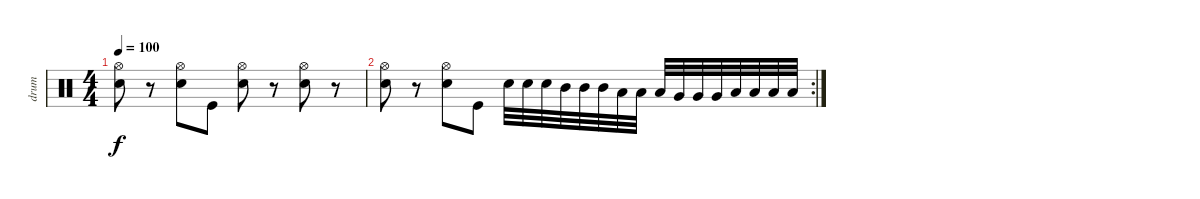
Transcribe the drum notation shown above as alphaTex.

\track ("drum" "drum") {instrument percussion}
\staff {score}
\articulation defaults
\ts (4 4)
\tempo 100
\clef neutral
\ks c
("Electric Snare (hit)" "Hi-Hat (open)").8{dy f} r.8 ("Electric Snare (hit)" "Hi-Hat (open)").8 "Kick (hit)".8 ("Electric Snare (hit)" "Hi-Hat (open)").8 r.8 ("Electric Snare (hit)" "Hi-Hat (open)").8 r.8 |
\rc 2
("Electric Snare (hit)" "Hi-Hat (open)").8 r.8 ("Electric Snare (hit)" "Hi-Hat (open)").8 "Kick (hit)".8 "Electric Snare (hit)".32 "Electric Snare (hit)".32 "Electric Snare (hit)".32 "Mid Tom (hit)".32 "Mid Tom (hit)".32 "Mid Tom (hit)".32 "Low Tom (hit)".32 "Low Tom (hit)".32 "Low Tom (hit)".32 "Very Low Tom (hit)".32 "Very Low Tom (hit)".32 "Very Low Tom (hit)".32 "Low Floor Tom (hit)".32 "Low Floor Tom (hit)".32 "Low Floor Tom (hit)".32 "Low Floor Tom (hit)".32
